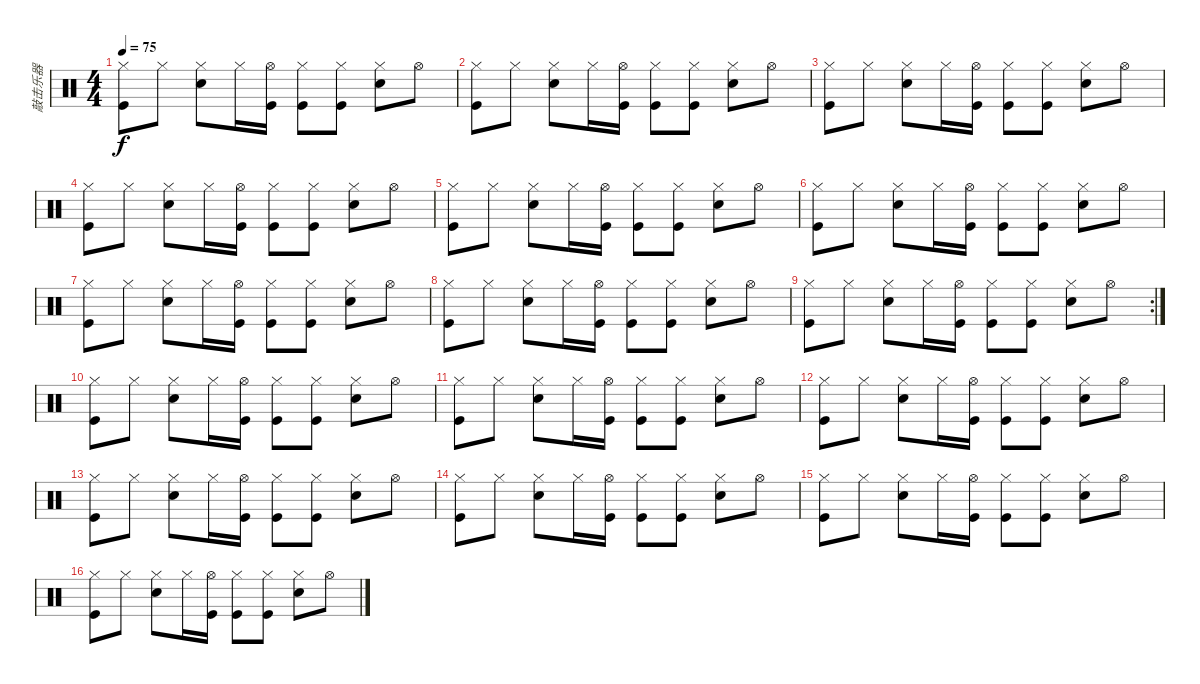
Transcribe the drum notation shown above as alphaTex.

\track ("敲击乐器" "敲击乐器") {instrument percussion}
\staff {score}
\articulation defaults
\ts (4 4)
\tempo 75
\clef neutral
\ks c
("Hi-Hat (closed)" "Kick (hit)").8{dy f} "Hi-Hat (closed)".8 ("Hi-Hat (closed)" "Snare (hit) 2").8 "Hi-Hat (closed)".16 ("Hi-Hat (open)" "Kick (hit)").16 ("Hi-Hat (closed)" "Kick (hit)").8 ("Hi-Hat (closed)" "Kick (hit)").8 ("Hi-Hat (closed)" "Snare (hit) 2").8 "Hi-Hat (open)".8 |
("Hi-Hat (closed)" "Kick (hit)").8 "Hi-Hat (closed)".8 ("Hi-Hat (closed)" "Snare (hit) 2").8 "Hi-Hat (closed)".16 ("Hi-Hat (open)" "Kick (hit)").16 ("Hi-Hat (closed)" "Kick (hit)").8 ("Hi-Hat (closed)" "Kick (hit)").8 ("Hi-Hat (closed)" "Snare (hit) 2").8 "Hi-Hat (open)".8 |
("Hi-Hat (closed)" "Kick (hit)").8 "Hi-Hat (closed)".8 ("Hi-Hat (closed)" "Snare (hit) 2").8 "Hi-Hat (closed)".16 ("Hi-Hat (open)" "Kick (hit)").16 ("Hi-Hat (closed)" "Kick (hit)").8 ("Hi-Hat (closed)" "Kick (hit)").8 ("Hi-Hat (closed)" "Snare (hit) 2").8 "Hi-Hat (open)".8 |
("Hi-Hat (closed)" "Kick (hit)").8 "Hi-Hat (closed)".8 ("Hi-Hat (closed)" "Snare (hit) 2").8 "Hi-Hat (closed)".16 ("Hi-Hat (open)" "Kick (hit)").16 ("Hi-Hat (closed)" "Kick (hit)").8 ("Hi-Hat (closed)" "Kick (hit)").8 ("Hi-Hat (closed)" "Snare (hit) 2").8 "Hi-Hat (open)".8 |
("Hi-Hat (closed)" "Kick (hit)").8 "Hi-Hat (closed)".8 ("Hi-Hat (closed)" "Snare (hit) 2").8 "Hi-Hat (closed)".16 ("Hi-Hat (open)" "Kick (hit)").16 ("Hi-Hat (closed)" "Kick (hit)").8 ("Hi-Hat (closed)" "Kick (hit)").8 ("Hi-Hat (closed)" "Snare (hit) 2").8 "Hi-Hat (open)".8 |
("Hi-Hat (closed)" "Kick (hit)").8 "Hi-Hat (closed)".8 ("Hi-Hat (closed)" "Snare (hit) 2").8 "Hi-Hat (closed)".16 ("Hi-Hat (open)" "Kick (hit)").16 ("Hi-Hat (closed)" "Kick (hit)").8 ("Hi-Hat (closed)" "Kick (hit)").8 ("Hi-Hat (closed)" "Snare (hit) 2").8 "Hi-Hat (open)".8 |
("Hi-Hat (closed)" "Kick (hit)").8 "Hi-Hat (closed)".8 ("Hi-Hat (closed)" "Snare (hit) 2").8 "Hi-Hat (closed)".16 ("Hi-Hat (open)" "Kick (hit)").16 ("Hi-Hat (closed)" "Kick (hit)").8 ("Hi-Hat (closed)" "Kick (hit)").8 ("Hi-Hat (closed)" "Snare (hit) 2").8 "Hi-Hat (open)".8 |
("Hi-Hat (closed)" "Kick (hit)").8 "Hi-Hat (closed)".8 ("Hi-Hat (closed)" "Snare (hit) 2").8 "Hi-Hat (closed)".16 ("Hi-Hat (open)" "Kick (hit)").16 ("Hi-Hat (closed)" "Kick (hit)").8 ("Hi-Hat (closed)" "Kick (hit)").8 ("Hi-Hat (closed)" "Snare (hit) 2").8 "Hi-Hat (open)".8 |
\rc 2
("Hi-Hat (closed)" "Kick (hit)").8 "Hi-Hat (closed)".8 ("Hi-Hat (closed)" "Snare (hit) 2").8 "Hi-Hat (closed)".16 ("Hi-Hat (open)" "Kick (hit)").16 ("Hi-Hat (closed)" "Kick (hit)").8 ("Hi-Hat (closed)" "Kick (hit)").8 ("Hi-Hat (closed)" "Snare (hit) 2").8 "Hi-Hat (open)".8 |
("Hi-Hat (closed)" "Kick (hit)").8 "Hi-Hat (closed)".8 ("Hi-Hat (closed)" "Snare (hit) 2").8 "Hi-Hat (closed)".16 ("Hi-Hat (open)" "Kick (hit)").16 ("Hi-Hat (closed)" "Kick (hit)").8 ("Hi-Hat (closed)" "Kick (hit)").8 ("Hi-Hat (closed)" "Snare (hit) 2").8 "Hi-Hat (open)".8 |
("Hi-Hat (closed)" "Kick (hit)").8 "Hi-Hat (closed)".8 ("Hi-Hat (closed)" "Snare (hit) 2").8 "Hi-Hat (closed)".16 ("Hi-Hat (open)" "Kick (hit)").16 ("Hi-Hat (closed)" "Kick (hit)").8 ("Hi-Hat (closed)" "Kick (hit)").8 ("Hi-Hat (closed)" "Snare (hit) 2").8 "Hi-Hat (open)".8 |
("Hi-Hat (closed)" "Kick (hit)").8 "Hi-Hat (closed)".8 ("Hi-Hat (closed)" "Snare (hit) 2").8 "Hi-Hat (closed)".16 ("Hi-Hat (open)" "Kick (hit)").16 ("Hi-Hat (closed)" "Kick (hit)").8 ("Hi-Hat (closed)" "Kick (hit)").8 ("Hi-Hat (closed)" "Snare (hit) 2").8 "Hi-Hat (open)".8 |
("Hi-Hat (closed)" "Kick (hit)").8 "Hi-Hat (closed)".8 ("Hi-Hat (closed)" "Snare (hit) 2").8 "Hi-Hat (closed)".16 ("Hi-Hat (open)" "Kick (hit)").16 ("Hi-Hat (closed)" "Kick (hit)").8 ("Hi-Hat (closed)" "Kick (hit)").8 ("Hi-Hat (closed)" "Snare (hit) 2").8 "Hi-Hat (open)".8 |
("Hi-Hat (closed)" "Kick (hit)").8 "Hi-Hat (closed)".8 ("Hi-Hat (closed)" "Snare (hit) 2").8 "Hi-Hat (closed)".16 ("Hi-Hat (open)" "Kick (hit)").16 ("Hi-Hat (closed)" "Kick (hit)").8 ("Hi-Hat (closed)" "Kick (hit)").8 ("Hi-Hat (closed)" "Snare (hit) 2").8 "Hi-Hat (open)".8 |
("Hi-Hat (closed)" "Kick (hit)").8 "Hi-Hat (closed)".8 ("Hi-Hat (closed)" "Snare (hit) 2").8 "Hi-Hat (closed)".16 ("Hi-Hat (open)" "Kick (hit)").16 ("Hi-Hat (closed)" "Kick (hit)").8 ("Hi-Hat (closed)" "Kick (hit)").8 ("Hi-Hat (closed)" "Snare (hit) 2").8 "Hi-Hat (open)".8 |
("Hi-Hat (closed)" "Kick (hit)").8 "Hi-Hat (closed)".8 ("Hi-Hat (closed)" "Snare (hit) 2").8 "Hi-Hat (closed)".16 ("Hi-Hat (open)" "Kick (hit)").16 ("Hi-Hat (closed)" "Kick (hit)").8 ("Hi-Hat (closed)" "Kick (hit)").8 ("Hi-Hat (closed)" "Snare (hit) 2").8 "Hi-Hat (open)".8
